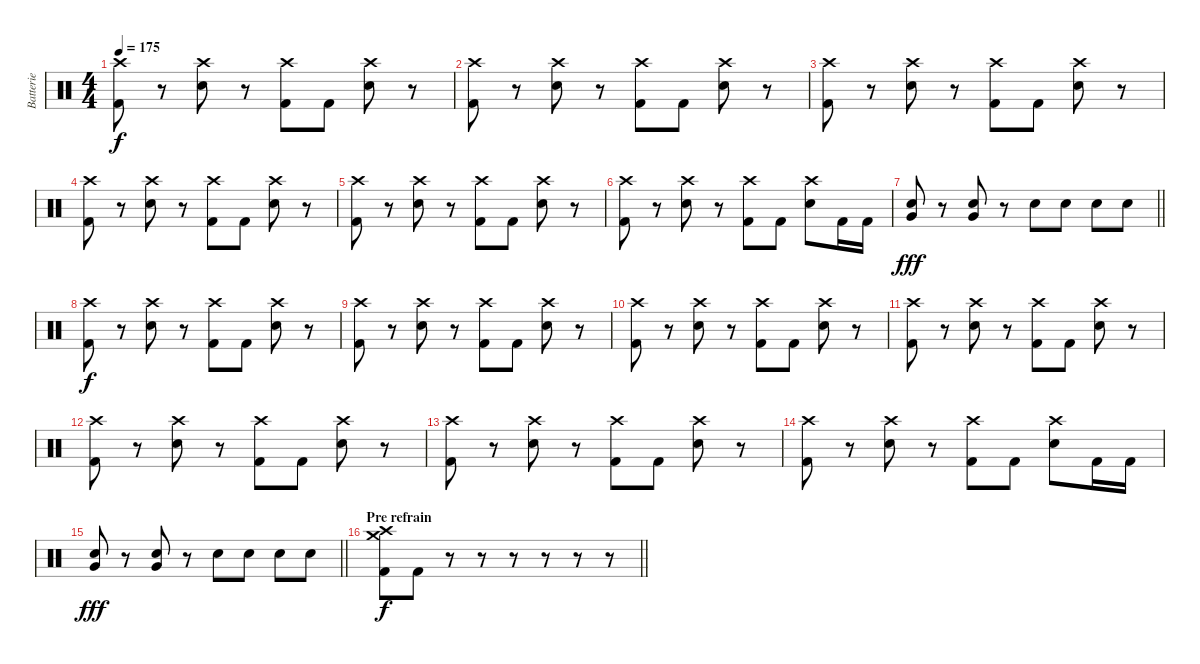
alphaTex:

\track ("Batterie" "Batterie") {instrument percussion}
\staff {score}
\articulation defaults
\ts (4 4)
\tempo 175
\clef neutral
\ks c
("Kick (hit) 2" "Crash high (hit)").8{dy f} r.8 ("Electric Snare (hit)" "Crash high (hit)").8 r.8 ("Kick (hit) 2" "Crash high (hit)").8 "Kick (hit) 2".8 ("Electric Snare (hit)" "Crash high (hit)").8 r.8 |
("Kick (hit) 2" "Crash high (hit)").8 r.8 ("Electric Snare (hit)" "Crash high (hit)").8 r.8 ("Kick (hit) 2" "Crash high (hit)").8 "Kick (hit) 2".8 ("Electric Snare (hit)" "Crash high (hit)").8 r.8 |
("Kick (hit) 2" "Crash high (hit)").8 r.8 ("Electric Snare (hit)" "Crash high (hit)").8 r.8 ("Kick (hit) 2" "Crash high (hit)").8 "Kick (hit) 2".8 ("Electric Snare (hit)" "Crash high (hit)").8 r.8 |
("Kick (hit) 2" "Crash high (hit)").8 r.8 ("Electric Snare (hit)" "Crash high (hit)").8 r.8 ("Kick (hit) 2" "Crash high (hit)").8 "Kick (hit) 2".8 ("Electric Snare (hit)" "Crash high (hit)").8 r.8 |
("Kick (hit) 2" "Crash high (hit)").8 r.8 ("Electric Snare (hit)" "Crash high (hit)").8 r.8 ("Kick (hit) 2" "Crash high (hit)").8 "Kick (hit) 2".8 ("Electric Snare (hit)" "Crash high (hit)").8 r.8 |
("Kick (hit) 2" "Crash high (hit)").8 r.8 ("Electric Snare (hit)" "Crash high (hit)").8 r.8 ("Kick (hit) 2" "Crash high (hit)").8 "Kick (hit) 2".8 ("Electric Snare (hit)" "Crash high (hit)").8 "Kick (hit) 2".16 "Kick (hit) 2".16 |
\barLineRight lightlight
("Electric Snare (hit)" "Very Low Tom (hit)").8{dy fff} r.8 ("Electric Snare (hit)" "Very Low Tom (hit)").8 r.8 "Electric Snare (hit)".8 "Electric Snare (hit)".8 "Electric Snare (hit)".8 "Electric Snare (hit)".8 |
("Kick (hit) 2" "Crash high (hit)").8{dy f} r.8 ("Electric Snare (hit)" "Crash high (hit)").8 r.8 ("Kick (hit) 2" "Crash high (hit)").8 "Kick (hit) 2".8 ("Electric Snare (hit)" "Crash high (hit)").8 r.8 |
("Kick (hit) 2" "Crash high (hit)").8 r.8 ("Electric Snare (hit)" "Crash high (hit)").8 r.8 ("Kick (hit) 2" "Crash high (hit)").8 "Kick (hit) 2".8 ("Electric Snare (hit)" "Crash high (hit)").8 r.8 |
("Kick (hit) 2" "Crash high (hit)").8 r.8 ("Electric Snare (hit)" "Crash high (hit)").8 r.8 ("Kick (hit) 2" "Crash high (hit)").8 "Kick (hit) 2".8 ("Electric Snare (hit)" "Crash high (hit)").8 r.8 |
("Kick (hit) 2" "Crash high (hit)").8 r.8 ("Electric Snare (hit)" "Crash high (hit)").8 r.8 ("Kick (hit) 2" "Crash high (hit)").8 "Kick (hit) 2".8 ("Electric Snare (hit)" "Crash high (hit)").8 r.8 |
("Kick (hit) 2" "Crash high (hit)").8 r.8 ("Electric Snare (hit)" "Crash high (hit)").8 r.8 ("Kick (hit) 2" "Crash high (hit)").8 "Kick (hit) 2".8 ("Electric Snare (hit)" "Crash high (hit)").8 r.8 |
("Kick (hit) 2" "Crash high (hit)").8 r.8 ("Electric Snare (hit)" "Crash high (hit)").8 r.8 ("Kick (hit) 2" "Crash high (hit)").8 "Kick (hit) 2".8 ("Electric Snare (hit)" "Crash high (hit)").8 r.8 |
("Kick (hit) 2" "Crash high (hit)").8 r.8 ("Electric Snare (hit)" "Crash high (hit)").8 r.8 ("Kick (hit) 2" "Crash high (hit)").8 "Kick (hit) 2".8 ("Electric Snare (hit)" "Crash high (hit)").8 "Kick (hit) 2".16 "Kick (hit) 2".16 |
\barLineRight lightlight
("Electric Snare (hit)" "Very Low Tom (hit)").8{dy fff} r.8 ("Electric Snare (hit)" "Very Low Tom (hit)").8 r.8 "Electric Snare (hit)".8 "Electric Snare (hit)".8 "Electric Snare (hit)".8 "Electric Snare (hit)".8 |
\section ("" "Pre refrain")
\barLineRight lightlight
("Kick (hit) 2" "Crash medium (hit)" "Crash high (hit)").8{dy f} "Kick (hit) 2".8 r.8 r.8 r.8 r.8 r.8 r.8
